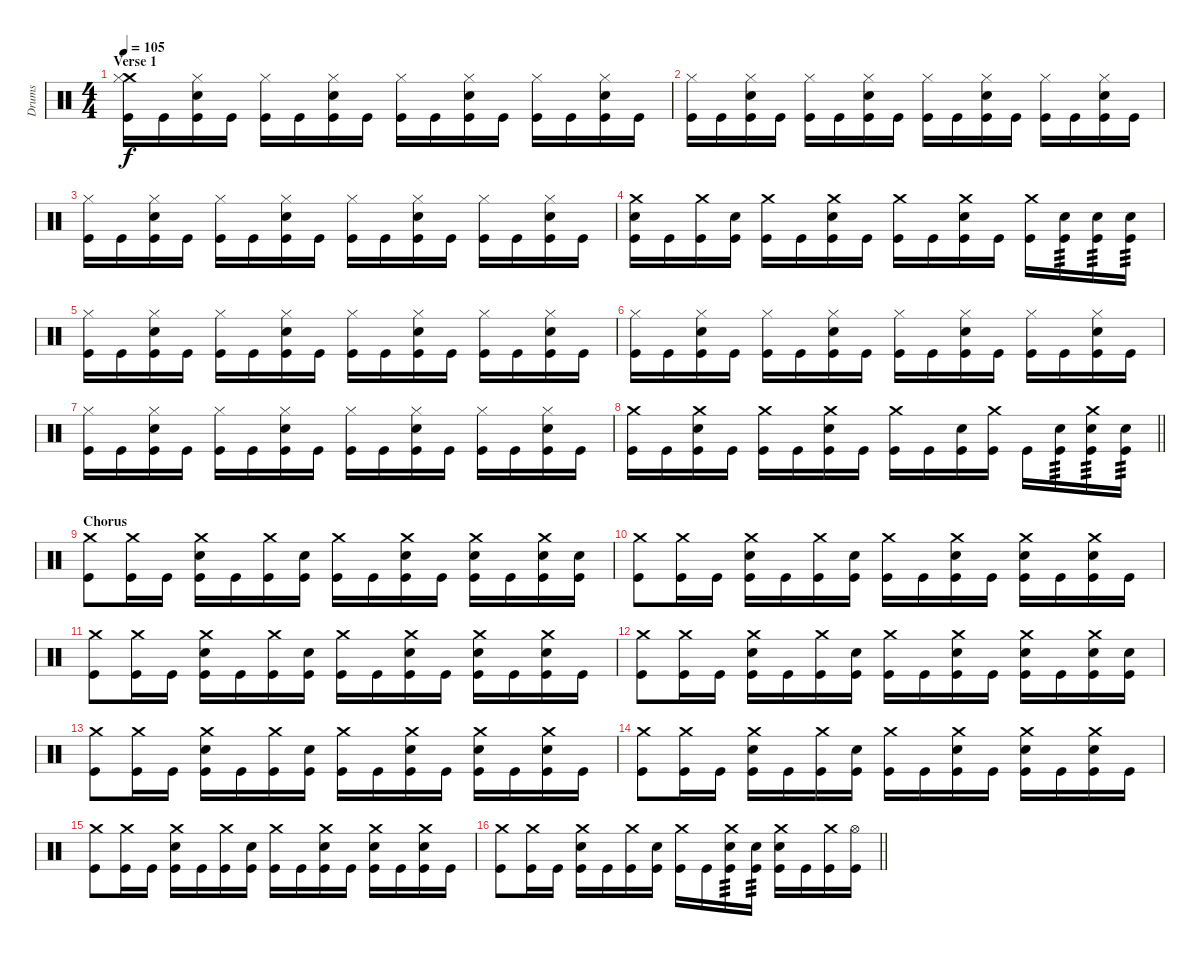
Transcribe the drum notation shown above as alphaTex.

\track ("Drums" "Drums") {instrument percussion}
\staff {score}
\articulation defaults
\ts (4 4)
\section ("" "Verse 1")
\tempo 105
\clef neutral
\ks c
("Crash medium (hit)" "Hi-Hat (closed)" "Kick (hit)").16{dy f} "Kick (hit)".16 ("Hi-Hat (closed)" "Snare (hit) 2" "Kick (hit)").16 "Kick (hit)".16 ("Hi-Hat (closed)" "Kick (hit)").16 "Kick (hit)".16 ("Hi-Hat (closed)" "Snare (hit) 2" "Kick (hit)").16 "Kick (hit)".16 ("Hi-Hat (closed)" "Kick (hit)").16 "Kick (hit)".16 ("Hi-Hat (closed)" "Snare (hit) 2" "Kick (hit)").16 "Kick (hit)".16 ("Hi-Hat (closed)" "Kick (hit)").16 "Kick (hit)".16 ("Hi-Hat (closed)" "Snare (hit) 2" "Kick (hit)").16 "Kick (hit)".16 |
("Hi-Hat (closed)" "Kick (hit)").16 "Kick (hit)".16 ("Hi-Hat (closed)" "Snare (hit) 2" "Kick (hit)").16 "Kick (hit)".16 ("Hi-Hat (closed)" "Kick (hit)").16 "Kick (hit)".16 ("Hi-Hat (closed)" "Snare (hit) 2" "Kick (hit)").16 "Kick (hit)".16 ("Hi-Hat (closed)" "Kick (hit)").16 "Kick (hit)".16 ("Hi-Hat (closed)" "Snare (hit) 2" "Kick (hit)").16 "Kick (hit)".16 ("Hi-Hat (closed)" "Kick (hit)").16 "Kick (hit)".16 ("Hi-Hat (closed)" "Snare (hit) 2" "Kick (hit)").16 "Kick (hit)".16 |
("Hi-Hat (closed)" "Kick (hit)").16 "Kick (hit)".16 ("Hi-Hat (closed)" "Snare (hit) 2" "Kick (hit)").16 "Kick (hit)".16 ("Hi-Hat (closed)" "Kick (hit)").16 "Kick (hit)".16 ("Hi-Hat (closed)" "Snare (hit) 2" "Kick (hit)").16 "Kick (hit)".16 ("Hi-Hat (closed)" "Kick (hit)").16 "Kick (hit)".16 ("Hi-Hat (closed)" "Snare (hit) 2" "Kick (hit)").16 "Kick (hit)".16 ("Hi-Hat (closed)" "Kick (hit)").16 "Kick (hit)".16 ("Hi-Hat (closed)" "Snare (hit) 2" "Kick (hit)").16 "Kick (hit)".16 |
("Crash medium (hit)" "Snare (hit) 2" "Kick (hit)").16 "Kick (hit)".16 ("Crash medium (hit)" "Kick (hit)").16 ("Snare (hit) 2" "Kick (hit)").16 ("Crash medium (hit)" "Kick (hit)").16 "Kick (hit)".16 ("Crash medium (hit)" "Snare (hit) 2" "Kick (hit)").16 "Kick (hit)".16 ("Crash medium (hit)" "Kick (hit)").16 "Kick (hit)".16 ("Crash medium (hit)" "Snare (hit) 2" "Kick (hit)").16 "Kick (hit)".16 ("Crash medium (hit)" "Kick (hit)").16 ("Snare (hit) 2" "Kick (hit)").16{tp 3} ("Snare (hit) 2" "Kick (hit)").16{tp 3} ("Snare (hit) 2" "Kick (hit)").16{tp 3} |
("Hi-Hat (closed)" "Kick (hit)").16 "Kick (hit)".16 ("Hi-Hat (closed)" "Snare (hit) 2" "Kick (hit)").16 "Kick (hit)".16 ("Hi-Hat (closed)" "Kick (hit)").16 "Kick (hit)".16 ("Hi-Hat (closed)" "Snare (hit) 2" "Kick (hit)").16 "Kick (hit)".16 ("Hi-Hat (closed)" "Kick (hit)").16 "Kick (hit)".16 ("Hi-Hat (closed)" "Snare (hit) 2" "Kick (hit)").16 "Kick (hit)".16 ("Hi-Hat (closed)" "Kick (hit)").16 "Kick (hit)".16 ("Hi-Hat (closed)" "Snare (hit) 2" "Kick (hit)").16 "Kick (hit)".16 |
("Hi-Hat (closed)" "Kick (hit)").16 "Kick (hit)".16 ("Hi-Hat (closed)" "Snare (hit) 2" "Kick (hit)").16 "Kick (hit)".16 ("Hi-Hat (closed)" "Kick (hit)").16 "Kick (hit)".16 ("Hi-Hat (closed)" "Snare (hit) 2" "Kick (hit)").16 "Kick (hit)".16 ("Hi-Hat (closed)" "Kick (hit)").16 "Kick (hit)".16 ("Hi-Hat (closed)" "Snare (hit) 2" "Kick (hit)").16 "Kick (hit)".16 ("Hi-Hat (closed)" "Kick (hit)").16 "Kick (hit)".16 ("Hi-Hat (closed)" "Snare (hit) 2" "Kick (hit)").16 "Kick (hit)".16 |
("Hi-Hat (closed)" "Kick (hit)").16 "Kick (hit)".16 ("Hi-Hat (closed)" "Snare (hit) 2" "Kick (hit)").16 "Kick (hit)".16 ("Hi-Hat (closed)" "Kick (hit)").16 "Kick (hit)".16 ("Hi-Hat (closed)" "Snare (hit) 2" "Kick (hit)").16 "Kick (hit)".16 ("Hi-Hat (closed)" "Kick (hit)").16 "Kick (hit)".16 ("Hi-Hat (closed)" "Snare (hit) 2" "Kick (hit)").16 "Kick (hit)".16 ("Hi-Hat (closed)" "Kick (hit)").16 "Kick (hit)".16 ("Hi-Hat (closed)" "Snare (hit) 2" "Kick (hit)").16 "Kick (hit)".16 |
\barLineRight lightlight
("Crash medium (hit)" "Kick (hit)").16 "Kick (hit)".16 ("Crash medium (hit)" "Snare (hit) 2" "Kick (hit)").16 "Kick (hit)".16 ("Crash medium (hit)" "Kick (hit)").16 "Kick (hit)".16 ("Crash medium (hit)" "Snare (hit) 2" "Kick (hit)").16 "Kick (hit)".16 ("Crash medium (hit)" "Kick (hit)").16 "Kick (hit)".16 ("Snare (hit) 2" "Kick (hit)").16 ("Crash medium (hit)" "Kick (hit)").16 "Kick (hit)".16 ("Snare (hit) 2" "Kick (hit)").16{tp 3} ("Crash medium (hit)" "Snare (hit) 2" "Kick (hit)").16{tp 3} ("Snare (hit) 2" "Kick (hit)").16{tp 3} |
\section ("" "Chorus")
("Crash medium (hit)" "Kick (hit)").8 ("Crash medium (hit)" "Kick (hit)").16 "Kick (hit)".16 ("Crash medium (hit)" "Snare (hit) 2" "Kick (hit)").16 "Kick (hit)".16 ("Crash medium (hit)" "Kick (hit)").16 ("Snare (hit) 2" "Kick (hit)").16 ("Crash medium (hit)" "Kick (hit)").16 "Kick (hit)".16 ("Crash medium (hit)" "Snare (hit) 2" "Kick (hit)").16 "Kick (hit)".16 ("Crash medium (hit)" "Snare (hit) 2" "Kick (hit)").16 "Kick (hit)".16 ("Crash medium (hit)" "Snare (hit) 2" "Kick (hit)").16 ("Snare (hit) 2" "Kick (hit)").16 |
("Crash medium (hit)" "Kick (hit)").8 ("Crash medium (hit)" "Kick (hit)").16 "Kick (hit)".16 ("Crash medium (hit)" "Snare (hit) 2" "Kick (hit)").16 "Kick (hit)".16 ("Crash medium (hit)" "Kick (hit)").16 ("Snare (hit) 2" "Kick (hit)").16 ("Crash medium (hit)" "Kick (hit)").16 "Kick (hit)".16 ("Crash medium (hit)" "Snare (hit) 2" "Kick (hit)").16 "Kick (hit)".16 ("Crash medium (hit)" "Snare (hit) 2" "Kick (hit)").16 "Kick (hit)".16 ("Crash medium (hit)" "Snare (hit) 2" "Kick (hit)").16 "Kick (hit)".16 |
("Crash medium (hit)" "Kick (hit)").8 ("Crash medium (hit)" "Kick (hit)").16 "Kick (hit)".16 ("Crash medium (hit)" "Snare (hit) 2" "Kick (hit)").16 "Kick (hit)".16 ("Crash medium (hit)" "Kick (hit)").16 ("Snare (hit) 2" "Kick (hit)").16 ("Crash medium (hit)" "Kick (hit)").16 "Kick (hit)".16 ("Crash medium (hit)" "Snare (hit) 2" "Kick (hit)").16 "Kick (hit)".16 ("Crash medium (hit)" "Snare (hit) 2" "Kick (hit)").16 "Kick (hit)".16 ("Crash medium (hit)" "Snare (hit) 2" "Kick (hit)").16 "Kick (hit)".16 |
("Crash medium (hit)" "Kick (hit)").8 ("Crash medium (hit)" "Kick (hit)").16 "Kick (hit)".16 ("Crash medium (hit)" "Snare (hit) 2" "Kick (hit)").16 "Kick (hit)".16 ("Crash medium (hit)" "Kick (hit)").16 ("Snare (hit) 2" "Kick (hit)").16 ("Crash medium (hit)" "Kick (hit)").16 "Kick (hit)".16 ("Crash medium (hit)" "Snare (hit) 2" "Kick (hit)").16 "Kick (hit)".16 ("Crash medium (hit)" "Snare (hit) 2" "Kick (hit)").16 "Kick (hit)".16 ("Crash medium (hit)" "Snare (hit) 2" "Kick (hit)").16 ("Snare (hit) 2" "Kick (hit)").16 |
("Crash medium (hit)" "Kick (hit)").8 ("Crash medium (hit)" "Kick (hit)").16 "Kick (hit)".16 ("Crash medium (hit)" "Snare (hit) 2" "Kick (hit)").16 "Kick (hit)".16 ("Crash medium (hit)" "Kick (hit)").16 ("Snare (hit) 2" "Kick (hit)").16 ("Crash medium (hit)" "Kick (hit)").16 "Kick (hit)".16 ("Crash medium (hit)" "Snare (hit) 2" "Kick (hit)").16 "Kick (hit)".16 ("Crash medium (hit)" "Snare (hit) 2" "Kick (hit)").16 "Kick (hit)".16 ("Crash medium (hit)" "Snare (hit) 2" "Kick (hit)").16 "Kick (hit)".16 |
("Crash medium (hit)" "Kick (hit)").8 ("Crash medium (hit)" "Kick (hit)").16 "Kick (hit)".16 ("Crash medium (hit)" "Snare (hit) 2" "Kick (hit)").16 "Kick (hit)".16 ("Crash medium (hit)" "Kick (hit)").16 ("Snare (hit) 2" "Kick (hit)").16 ("Crash medium (hit)" "Kick (hit)").16 "Kick (hit)".16 ("Crash medium (hit)" "Snare (hit) 2" "Kick (hit)").16 "Kick (hit)".16 ("Crash medium (hit)" "Snare (hit) 2" "Kick (hit)").16 "Kick (hit)".16 ("Crash medium (hit)" "Snare (hit) 2" "Kick (hit)").16 "Kick (hit)".16 |
("Crash medium (hit)" "Kick (hit)").8 ("Crash medium (hit)" "Kick (hit)").16 "Kick (hit)".16 ("Crash medium (hit)" "Snare (hit) 2" "Kick (hit)").16 "Kick (hit)".16 ("Crash medium (hit)" "Kick (hit)").16 ("Snare (hit) 2" "Kick (hit)").16 ("Crash medium (hit)" "Kick (hit)").16 "Kick (hit)".16 ("Crash medium (hit)" "Snare (hit) 2" "Kick (hit)").16 "Kick (hit)".16 ("Crash medium (hit)" "Snare (hit) 2" "Kick (hit)").16 "Kick (hit)".16 ("Crash medium (hit)" "Snare (hit) 2" "Kick (hit)").16 "Kick (hit)".16 |
\barLineRight lightlight
("Crash medium (hit)" "Kick (hit)").8 ("Crash medium (hit)" "Kick (hit)").16 "Kick (hit)".16 ("Crash medium (hit)" "Snare (hit) 2" "Kick (hit)").16 "Kick (hit)".16 ("Crash medium (hit)" "Kick (hit)").16 ("Snare (hit) 2" "Kick (hit)").16 ("Crash medium (hit)" "Kick (hit)").16 "Kick (hit)".16 ("Crash medium (hit)" "Snare (hit) 2" "Kick (hit)").16{tp 3} ("Snare (hit) 2" "Kick (hit)").16{tp 3} ("Crash medium (hit)" "Snare (hit) 2" "Kick (hit)").16 "Kick (hit)".16 ("Crash medium (hit)" "Kick (hit)").16 ("Hi-Hat (open)" "Kick (hit)").16
